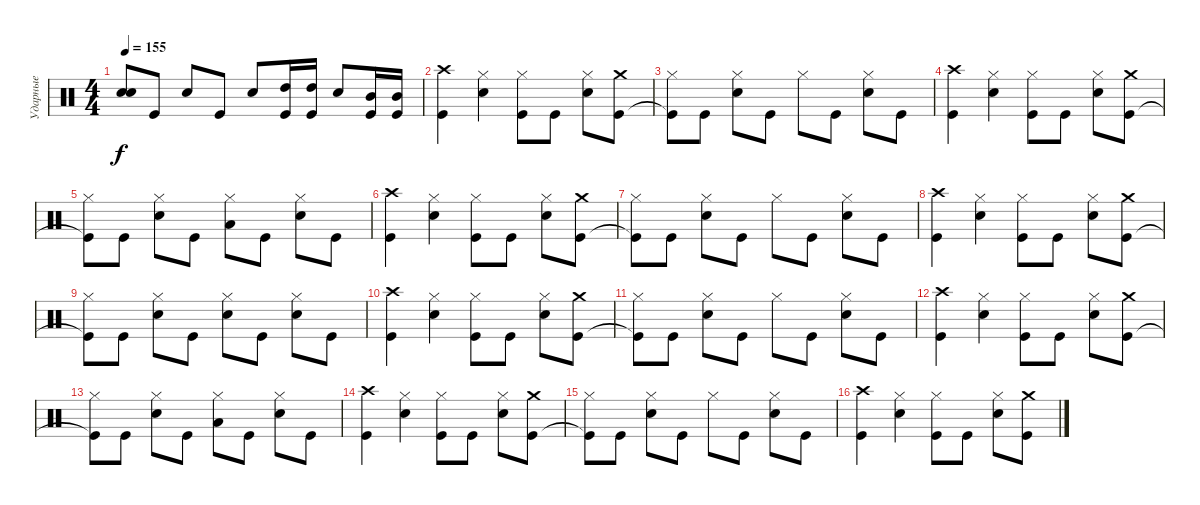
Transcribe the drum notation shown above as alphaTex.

\track ("Ударные" "Ударные") {instrument percussion}
\staff {score}
\articulation defaults
\ts (4 4)
\tempo 155
\clef neutral
\ks c
("Electric Snare (hit)" "Snare (hit)"{t}).8{dy f} "Kick (hit)".8 "Electric Snare (hit)".8 "Kick (hit)".8 "Electric Snare (hit)".8 ("High Tom (hit)" "Kick (hit)").16 ("High Tom (hit)" "Kick (hit)").16 "Electric Snare (hit)".8 ("Mid Tom (hit)" "Kick (hit)").16 ("Mid Tom (hit)" "Kick (hit)").16 |
("Crash high (hit)" "Kick (hit)").4 ("Hi-Hat (closed)" "Electric Snare (hit)").4 ("Hi-Hat (closed)" "Kick (hit)").8 "Kick (hit)".8 ("Hi-Hat (closed)" "Electric Snare (hit)").8 ("Crash medium (hit)" "Kick (hit)").8 |
("Hi-Hat (closed)" "Kick (hit)"{t}).8 "Kick (hit)".8 ("Hi-Hat (closed)" "Electric Snare (hit)").8 "Kick (hit)".8 "Hi-Hat (closed)".8 "Kick (hit)".8 ("Hi-Hat (closed)" "Electric Snare (hit)").8 "Kick (hit)".8 |
("Crash high (hit)" "Kick (hit)").4 ("Hi-Hat (closed)" "Electric Snare (hit)").4 ("Hi-Hat (closed)" "Kick (hit)").8 "Kick (hit)".8 ("Hi-Hat (closed)" "Electric Snare (hit)").8 ("Crash medium (hit)" "Kick (hit)").8 |
("Hi-Hat (closed)" "Kick (hit)"{t}).8 "Kick (hit)".8 ("Hi-Hat (closed)" "Electric Snare (hit)").8 "Kick (hit)".8 ("Hi-Hat (closed)" "Low Tom (hit)").8 "Kick (hit)".8 ("Hi-Hat (closed)" "Electric Snare (hit)").8 "Kick (hit)".8 |
("Crash high (hit)" "Kick (hit)").4 ("Hi-Hat (closed)" "Electric Snare (hit)").4 ("Hi-Hat (closed)" "Kick (hit)").8 "Kick (hit)".8 ("Hi-Hat (closed)" "Electric Snare (hit)").8 ("Crash medium (hit)" "Kick (hit)").8 |
("Hi-Hat (closed)" "Kick (hit)"{t}).8 "Kick (hit)".8 ("Hi-Hat (closed)" "Electric Snare (hit)").8 "Kick (hit)".8 "Hi-Hat (closed)".8 "Kick (hit)".8 ("Hi-Hat (closed)" "Electric Snare (hit)").8 "Kick (hit)".8 |
("Crash high (hit)" "Kick (hit)").4 ("Hi-Hat (closed)" "Electric Snare (hit)").4 ("Hi-Hat (closed)" "Kick (hit)").8 "Kick (hit)".8 ("Hi-Hat (closed)" "Electric Snare (hit)").8 ("Crash medium (hit)" "Kick (hit)").8 |
("Hi-Hat (closed)" "Kick (hit)"{t}).8 "Kick (hit)".8 ("Hi-Hat (closed)" "Electric Snare (hit)").8 "Kick (hit)".8 ("Hi-Hat (closed)" "Electric Snare (hit)").8 "Kick (hit)".8 ("Hi-Hat (closed)" "Electric Snare (hit)").8 "Kick (hit)".8 |
("Crash high (hit)" "Kick (hit)").4 ("Hi-Hat (closed)" "Electric Snare (hit)").4 ("Hi-Hat (closed)" "Kick (hit)").8 "Kick (hit)".8 ("Hi-Hat (closed)" "Electric Snare (hit)").8 ("Crash medium (hit)" "Kick (hit)").8 |
("Hi-Hat (closed)" "Kick (hit)"{t}).8 "Kick (hit)".8 ("Hi-Hat (closed)" "Electric Snare (hit)").8 "Kick (hit)".8 "Hi-Hat (closed)".8 "Kick (hit)".8 ("Hi-Hat (closed)" "Electric Snare (hit)").8 "Kick (hit)".8 |
("Crash high (hit)" "Kick (hit)").4 ("Hi-Hat (closed)" "Electric Snare (hit)").4 ("Hi-Hat (closed)" "Kick (hit)").8 "Kick (hit)".8 ("Hi-Hat (closed)" "Electric Snare (hit)").8 ("Crash medium (hit)" "Kick (hit)").8 |
("Hi-Hat (closed)" "Kick (hit)"{t}).8 "Kick (hit)".8 ("Hi-Hat (closed)" "Electric Snare (hit)").8 "Kick (hit)".8 ("Hi-Hat (closed)" "Low Tom (hit)").8 "Kick (hit)".8 ("Hi-Hat (closed)" "Electric Snare (hit)").8 "Kick (hit)".8 |
("Crash high (hit)" "Kick (hit)").4 ("Hi-Hat (closed)" "Electric Snare (hit)").4 ("Hi-Hat (closed)" "Kick (hit)").8 "Kick (hit)".8 ("Hi-Hat (closed)" "Electric Snare (hit)").8 ("Crash medium (hit)" "Kick (hit)").8 |
("Hi-Hat (closed)" "Kick (hit)"{t}).8 "Kick (hit)".8 ("Hi-Hat (closed)" "Electric Snare (hit)").8 "Kick (hit)".8 "Hi-Hat (closed)".8 "Kick (hit)".8 ("Hi-Hat (closed)" "Electric Snare (hit)").8 "Kick (hit)".8 |
("Crash high (hit)" "Kick (hit)").4 ("Hi-Hat (closed)" "Electric Snare (hit)").4 ("Hi-Hat (closed)" "Kick (hit)").8 "Kick (hit)".8 ("Hi-Hat (closed)" "Electric Snare (hit)").8 ("Crash medium (hit)" "Kick (hit)").8
